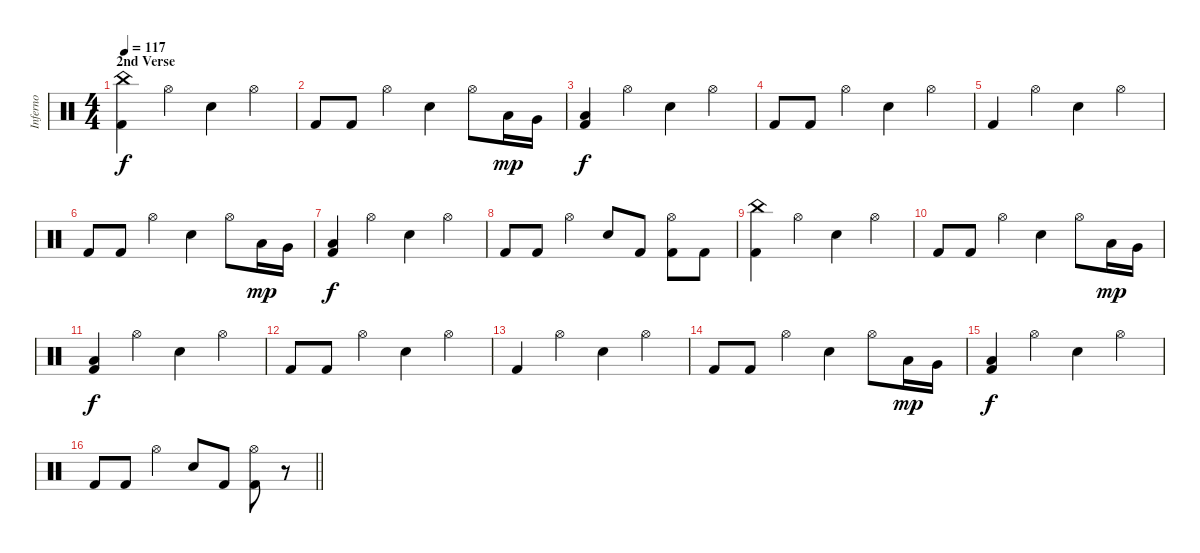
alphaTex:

\track ("Inferno" "Inferno") {instrument percussion}
\staff {score}
\articulation defaults
\ts (4 4)
\section ("" "2nd Verse")
\tempo 117
\clef neutral
\ks c
("China (hit)" "Kick (hit) 2").4{dy f} "Hi-Hat (open)".4 "Snare (hit) 2".4 "Hi-Hat (open)".4 |
"Kick (hit) 2".8 "Kick (hit) 2".8 "Hi-Hat (open)".4 "Snare (hit) 2".4 "Hi-Hat (open)".8 "Low Tom (hit)".16{dy mp} "Very Low Tom (hit)".16 |
("Low Floor Tom (hit)" "Kick (hit) 2").4{dy f} "Hi-Hat (open)".4 "Snare (hit) 2".4 "Hi-Hat (open)".4 |
"Kick (hit) 2".8 "Kick (hit) 2".8 "Hi-Hat (open)".4 "Snare (hit) 2".4 "Hi-Hat (open)".4 |
"Kick (hit) 2".4 "Hi-Hat (open)".4 "Snare (hit) 2".4 "Hi-Hat (open)".4 |
"Kick (hit) 2".8 "Kick (hit) 2".8 "Hi-Hat (open)".4 "Snare (hit) 2".4 "Hi-Hat (open)".8 "Low Tom (hit)".16{dy mp} "Very Low Tom (hit)".16 |
("Low Floor Tom (hit)" "Kick (hit) 2").4{dy f} "Hi-Hat (open)".4 "Snare (hit) 2".4 "Hi-Hat (open)".4 |
"Kick (hit) 2".8 "Kick (hit) 2".8 "Hi-Hat (open)".4 "Snare (hit) 2".8 "Kick (hit) 2".8 ("Hi-Hat (open)" "Kick (hit) 2").8 "Kick (hit) 2".8 |
("China (hit)" "Kick (hit) 2").4 "Hi-Hat (open)".4 "Snare (hit) 2".4 "Hi-Hat (open)".4 |
"Kick (hit) 2".8 "Kick (hit) 2".8 "Hi-Hat (open)".4 "Snare (hit) 2".4 "Hi-Hat (open)".8 "Low Tom (hit)".16{dy mp} "Very Low Tom (hit)".16 |
("Low Floor Tom (hit)" "Kick (hit) 2").4{dy f} "Hi-Hat (open)".4 "Snare (hit) 2".4 "Hi-Hat (open)".4 |
"Kick (hit) 2".8 "Kick (hit) 2".8 "Hi-Hat (open)".4 "Snare (hit) 2".4 "Hi-Hat (open)".4 |
"Kick (hit) 2".4 "Hi-Hat (open)".4 "Snare (hit) 2".4 "Hi-Hat (open)".4 |
"Kick (hit) 2".8 "Kick (hit) 2".8 "Hi-Hat (open)".4 "Snare (hit) 2".4 "Hi-Hat (open)".8 "Low Tom (hit)".16{dy mp} "Very Low Tom (hit)".16 |
("Low Floor Tom (hit)" "Kick (hit) 2").4{dy f} "Hi-Hat (open)".4 "Snare (hit) 2".4 "Hi-Hat (open)".4 |
\barLineRight lightlight "Kick (hit) 2".8 "Kick (hit) 2".8 "Hi-Hat (open)".4 "Snare (hit) 2".8 "Kick (hit) 2".8
("Hi-Hat (open)" "Kick (hit) 2").8 r.8
